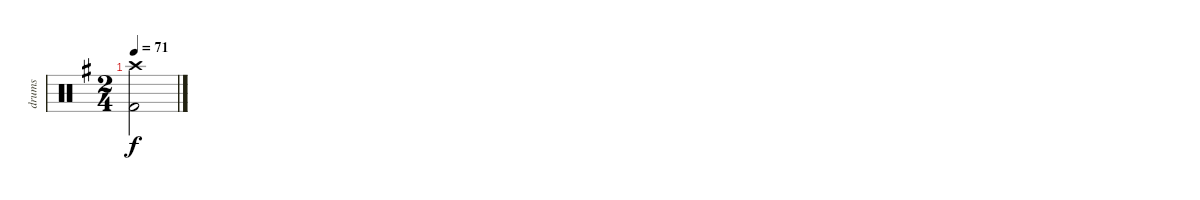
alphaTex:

\track ("drums" "drums") {instrument percussion}
\staff {score}
\articulation defaults
\ts (2 4)
\tempo 71
\clef neutral
\ks g
("Crash high (hit)" "Kick (hit) 2").2{dy f}
